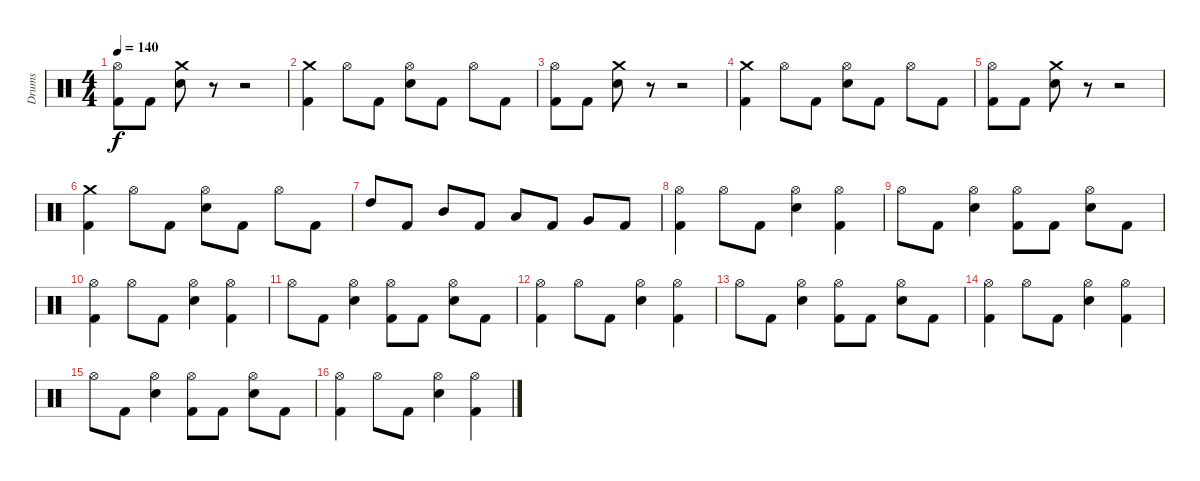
\track ("Drums" "Drums") {instrument percussion}
\staff {score}
\articulation defaults
\ts (4 4)
\tempo 140
\clef neutral
\ks c
("Hi-Hat (open)" "Kick (hit) 2").8{dy f} "Kick (hit) 2".8 ("Crash medium (hit)" "Electric Snare (hit)").8 r.8 r.2 |
("Crash medium (hit)" "Kick (hit) 2").4 "Hi-Hat (open)".8 "Kick (hit) 2".8 ("Hi-Hat (open)" "Electric Snare (hit)").8 "Kick (hit) 2".8 "Hi-Hat (open)".8 "Kick (hit) 2".8 |
("Hi-Hat (open)" "Kick (hit) 2").8 "Kick (hit) 2".8 ("Crash medium (hit)" "Electric Snare (hit)").8 r.8 r.2 |
("Crash medium (hit)" "Kick (hit) 2").4 "Hi-Hat (open)".8 "Kick (hit) 2".8 ("Hi-Hat (open)" "Electric Snare (hit)").8 "Kick (hit) 2".8 "Hi-Hat (open)".8 "Kick (hit) 2".8 |
("Hi-Hat (open)" "Kick (hit) 2").8 "Kick (hit) 2".8 ("Crash medium (hit)" "Electric Snare (hit)").8 r.8 r.2 |
("Crash medium (hit)" "Kick (hit) 2").4 "Hi-Hat (open)".8 "Kick (hit) 2".8 ("Hi-Hat (open)" "Electric Snare (hit)").8 "Kick (hit) 2".8 "Hi-Hat (open)".8 "Kick (hit) 2".8 |
"High Tom (hit)".8 "Kick (hit) 2".8 "Mid Tom (hit)".8 "Kick (hit) 2".8 "Low Tom (hit)".8 "Kick (hit) 2".8 "Very Low Tom (hit)".8 "Kick (hit) 2".8 |
("Kick (hit) 2" "Hi-Hat (open)").4 "Hi-Hat (open)".8 "Kick (hit) 2".8 ("Electric Snare (hit)" "Hi-Hat (open)").4 ("Kick (hit) 2" "Hi-Hat (open)").4 |
"Hi-Hat (open)".8 "Kick (hit) 2".8 ("Electric Snare (hit)" "Hi-Hat (open)").4 ("Kick (hit) 2" "Hi-Hat (open)").8 "Kick (hit) 2".8 ("Electric Snare (hit)" "Hi-Hat (open)").8 "Kick (hit) 2".8 |
("Kick (hit) 2" "Hi-Hat (open)").4 "Hi-Hat (open)".8 "Kick (hit) 2".8 ("Electric Snare (hit)" "Hi-Hat (open)").4 ("Kick (hit) 2" "Hi-Hat (open)").4 |
"Hi-Hat (open)".8 "Kick (hit) 2".8 ("Electric Snare (hit)" "Hi-Hat (open)").4 ("Kick (hit) 2" "Hi-Hat (open)").8 "Kick (hit) 2".8 ("Electric Snare (hit)" "Hi-Hat (open)").8 "Kick (hit) 2".8 |
("Kick (hit) 2" "Hi-Hat (open)").4 "Hi-Hat (open)".8 "Kick (hit) 2".8 ("Electric Snare (hit)" "Hi-Hat (open)").4 ("Kick (hit) 2" "Hi-Hat (open)").4 |
"Hi-Hat (open)".8 "Kick (hit) 2".8 ("Electric Snare (hit)" "Hi-Hat (open)").4 ("Kick (hit) 2" "Hi-Hat (open)").8 "Kick (hit) 2".8 ("Electric Snare (hit)" "Hi-Hat (open)").8 "Kick (hit) 2".8 |
("Kick (hit) 2" "Hi-Hat (open)").4 "Hi-Hat (open)".8 "Kick (hit) 2".8 ("Electric Snare (hit)" "Hi-Hat (open)").4 ("Kick (hit) 2" "Hi-Hat (open)").4 |
"Hi-Hat (open)".8 "Kick (hit) 2".8 ("Electric Snare (hit)" "Hi-Hat (open)").4 ("Kick (hit) 2" "Hi-Hat (open)").8 "Kick (hit) 2".8 ("Electric Snare (hit)" "Hi-Hat (open)").8 "Kick (hit) 2".8 |
("Kick (hit) 2" "Hi-Hat (open)").4 "Hi-Hat (open)".8 "Kick (hit) 2".8 ("Electric Snare (hit)" "Hi-Hat (open)").4 ("Kick (hit) 2" "Hi-Hat (open)").4
